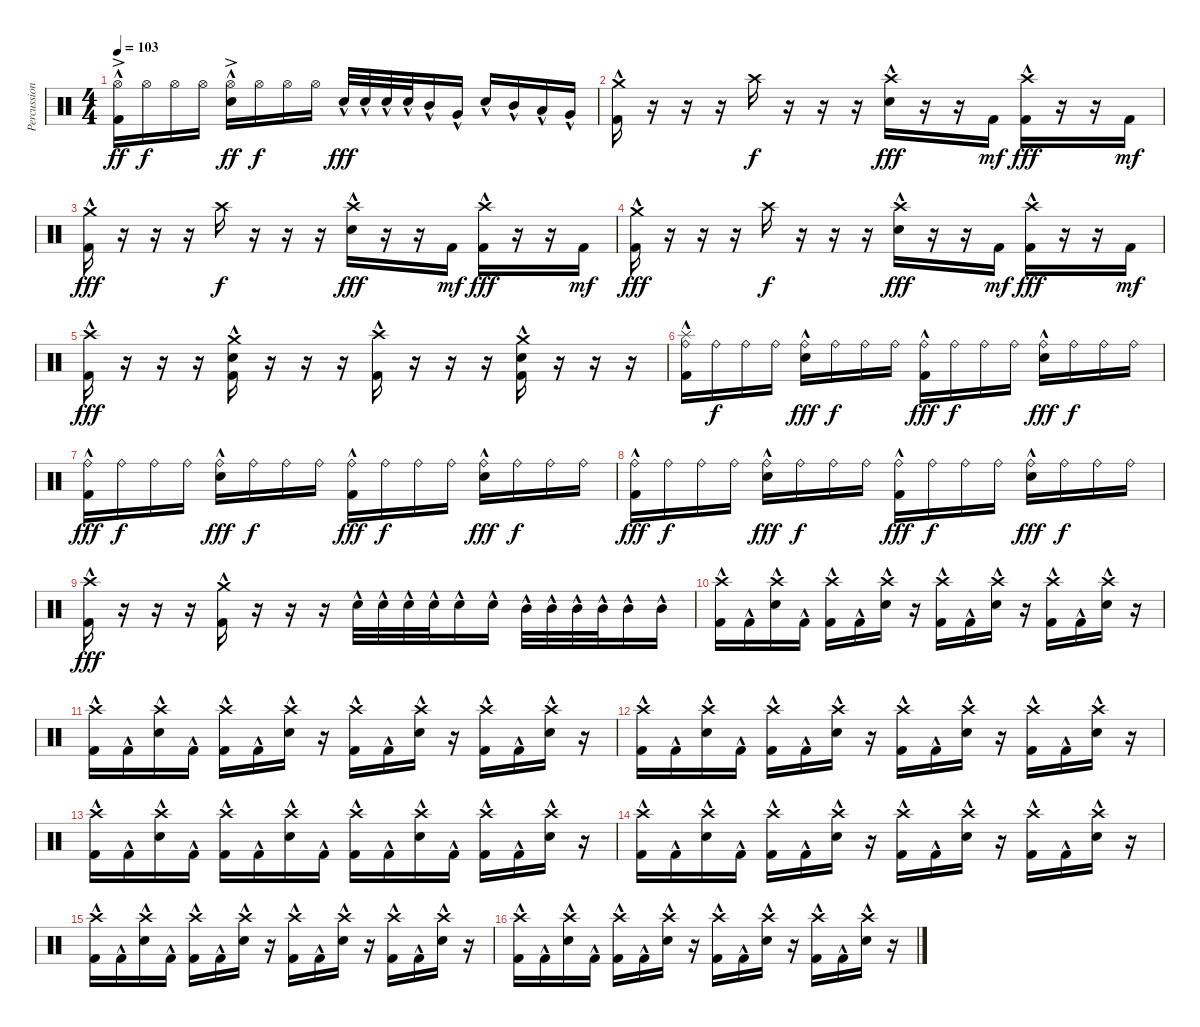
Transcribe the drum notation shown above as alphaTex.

\track ("Percussion" "Percussion") {instrument percussion}
\staff {score}
\articulation defaults
\ts (4 4)
\tempo 103
\clef neutral
\ks c
("Kick (hit) 2"{hac} "Hi-Hat (open)"{ac}).16{dy ff} "Hi-Hat (open)".16{dy f} "Hi-Hat (open)".16 "Hi-Hat (open)".16 ("Electric Snare (hit)"{hac} "Hi-Hat (open)"{ac}).16{dy ff} "Hi-Hat (open)".16{dy f} "Hi-Hat (open)".16 "Hi-Hat (open)".16 "Electric Snare (hit)"{hac}.32{dy fff} "Electric Snare (hit)"{hac}.32 "Electric Snare (hit)"{hac}.32 "Electric Snare (hit)"{hac}.32 "Mid Tom (hit)"{hac}.16 "Very Low Tom (hit)"{hac}.16 "Electric Snare (hit)"{hac}.16 "Mid Tom (hit)"{hac}.16 "Low Tom (hit)"{hac}.16 "Very Low Tom (hit)"{hac}.16 |
("Kick (hit) 2"{hac} "Crash medium (hit)").16 r.16 r.16 r.16 "Crash high (hit)".16{dy f} r.16 r.16 r.16 ("Electric Snare (hit)"{hac} "Crash high (hit)").16{dy fff} r.16 r.16 "Kick (hit) 2".16{dy mf} ("Kick (hit) 2"{hac} "Crash high (hit)").16{dy fff} r.16 r.16 "Kick (hit) 2".16{dy mf} |
("Kick (hit) 2"{hac} "Crash medium (hit)").16{dy fff} r.16 r.16 r.16 "Crash high (hit)".16{dy f} r.16 r.16 r.16 ("Electric Snare (hit)"{hac} "Crash high (hit)").16{dy fff} r.16 r.16 "Kick (hit) 2".16{dy mf} ("Kick (hit) 2"{hac} "Crash high (hit)").16{dy fff} r.16 r.16 "Kick (hit) 2".16{dy mf} |
("Kick (hit) 2"{hac} "Crash medium (hit)").16{dy fff} r.16 r.16 r.16 "Crash high (hit)".16{dy f} r.16 r.16 r.16 ("Electric Snare (hit)"{hac} "Crash high (hit)").16{dy fff} r.16 r.16 "Kick (hit) 2".16{dy mf} ("Kick (hit) 2"{hac} "Crash high (hit)").16{dy fff} r.16 r.16 "Kick (hit) 2".16{dy mf} |
("Kick (hit) 2"{hac} "Crash high (hit)").16{dy fff} r.16 r.16 r.16 ("Kick (hit) 2"{hac} "Electric Snare (hit)"{hac} "Crash medium (hit)").16 r.16 r.16 r.16 ("Kick (hit) 2"{hac} "Crash high (hit)").16 r.16 r.16 r.16 ("Kick (hit) 2"{hac} "Electric Snare (hit)"{hac} "Crash medium (hit)").16 r.16 r.16 r.16 |
("Kick (hit) 2"{hac} "Splash (hit)" "Ride (bell)"{hac}).16 "Ride (bell)".16{dy f} "Ride (bell)".16 "Ride (bell)".16 ("Electric Snare (hit)"{hac} "Ride (bell)"{hac}).16{dy fff} "Ride (bell)".16{dy f} "Ride (bell)".16 "Ride (bell)".16 ("Kick (hit) 2"{hac} "Ride (bell)"{hac}).16{dy fff} "Ride (bell)".16{dy f} "Ride (bell)".16 "Ride (bell)".16 ("Electric Snare (hit)"{hac} "Ride (bell)"{hac}).16{dy fff} "Ride (bell)".16{dy f} "Ride (bell)".16 "Ride (bell)".16 |
("Kick (hit) 2"{hac} "Ride (bell)"{hac}).16{dy fff} "Ride (bell)".16{dy f} "Ride (bell)".16 "Ride (bell)".16 ("Electric Snare (hit)"{hac} "Ride (bell)"{hac}).16{dy fff} "Ride (bell)".16{dy f} "Ride (bell)".16 "Ride (bell)".16 ("Kick (hit) 2"{hac} "Ride (bell)"{hac}).16{dy fff} "Ride (bell)".16{dy f} "Ride (bell)".16 "Ride (bell)".16 ("Electric Snare (hit)"{hac} "Ride (bell)"{hac}).16{dy fff} "Ride (bell)".16{dy f} "Ride (bell)".16 "Ride (bell)".16 |
("Kick (hit) 2"{hac} "Ride (bell)"{hac}).16{dy fff} "Ride (bell)".16{dy f} "Ride (bell)".16 "Ride (bell)".16 ("Electric Snare (hit)"{hac} "Ride (bell)"{hac}).16{dy fff} "Ride (bell)".16{dy f} "Ride (bell)".16 "Ride (bell)".16 ("Kick (hit) 2"{hac} "Ride (bell)"{hac}).16{dy fff} "Ride (bell)".16{dy f} "Ride (bell)".16 "Ride (bell)".16 ("Electric Snare (hit)"{hac} "Ride (bell)"{hac}).16{dy fff} "Ride (bell)".16{dy f} "Ride (bell)".16 "Ride (bell)".16 |
("Kick (hit) 2"{hac} "Crash high (hit)").16{dy fff} r.16 r.16 r.16 ("Kick (hit) 2"{hac} "Crash medium (hit)").16 r.16 r.16 r.16 "Electric Snare (hit)"{hac}.32 "Electric Snare (hit)"{hac}.32 "Electric Snare (hit)"{hac}.32 "Electric Snare (hit)"{hac}.32 "Electric Snare (hit)"{hac}.16 "Electric Snare (hit)"{hac}.16 "Mid Tom (hit)"{hac}.32 "Mid Tom (hit)"{hac}.32 "Mid Tom (hit)"{hac}.32 "Mid Tom (hit)"{hac}.32 "Mid Tom (hit)"{hac}.16 "Mid Tom (hit)"{hac}.16 |
("Kick (hit) 2"{hac} "Crash high (hit)").16 "Kick (hit) 2"{hac}.16 ("Electric Snare (hit)"{hac} "Crash high (hit)").16 "Kick (hit) 2"{hac}.16 ("Kick (hit) 2"{hac} "Crash high (hit)").16 "Kick (hit) 2"{hac}.16 ("Electric Snare (hit)"{hac} "Crash high (hit)").16 r.16 ("Kick (hit) 2"{hac} "Crash high (hit)").16 "Kick (hit) 2"{hac}.16 ("Electric Snare (hit)"{hac} "Crash high (hit)").16 r.16 ("Kick (hit) 2"{hac} "Crash high (hit)").16 "Kick (hit) 2"{hac}.16 ("Electric Snare (hit)"{hac} "Crash high (hit)").16 r.16 |
("Kick (hit) 2"{hac} "Crash high (hit)").16 "Kick (hit) 2"{hac}.16 ("Electric Snare (hit)"{hac} "Crash high (hit)").16 "Kick (hit) 2"{hac}.16 ("Kick (hit) 2"{hac} "Crash high (hit)").16 "Kick (hit) 2"{hac}.16 ("Electric Snare (hit)"{hac} "Crash high (hit)").16 r.16 ("Kick (hit) 2"{hac} "Crash high (hit)").16 "Kick (hit) 2"{hac}.16 ("Electric Snare (hit)"{hac} "Crash high (hit)").16 r.16 ("Kick (hit) 2"{hac} "Crash high (hit)").16 "Kick (hit) 2"{hac}.16 ("Electric Snare (hit)"{hac} "Crash high (hit)").16 r.16 |
("Kick (hit) 2"{hac} "Crash high (hit)").16 "Kick (hit) 2"{hac}.16 ("Electric Snare (hit)"{hac} "Crash high (hit)").16 "Kick (hit) 2"{hac}.16 ("Kick (hit) 2"{hac} "Crash high (hit)").16 "Kick (hit) 2"{hac}.16 ("Electric Snare (hit)"{hac} "Crash high (hit)").16 r.16 ("Kick (hit) 2"{hac} "Crash high (hit)").16 "Kick (hit) 2"{hac}.16 ("Electric Snare (hit)"{hac} "Crash high (hit)").16 r.16 ("Kick (hit) 2"{hac} "Crash high (hit)").16 "Kick (hit) 2"{hac}.16 ("Electric Snare (hit)"{hac} "Crash high (hit)").16 r.16 |
("Kick (hit) 2"{hac} "Crash high (hit)").16 "Kick (hit) 2"{hac}.16 ("Electric Snare (hit)"{hac} "Crash high (hit)").16 "Kick (hit) 2"{hac}.16 ("Kick (hit) 2"{hac} "Crash high (hit)").16 "Kick (hit) 2"{hac}.16 ("Electric Snare (hit)"{hac} "Crash high (hit)").16 "Kick (hit) 2"{hac}.16 ("Kick (hit) 2"{hac} "Crash high (hit)").16 "Kick (hit) 2"{hac}.16 ("Electric Snare (hit)"{hac} "Crash high (hit)").16 "Kick (hit) 2"{hac}.16 ("Kick (hit) 2"{hac} "Crash high (hit)").16 "Kick (hit) 2"{hac}.16 ("Electric Snare (hit)"{hac} "Crash high (hit)").16 r.16 |
("Kick (hit) 2"{hac} "Crash high (hit)").16 "Kick (hit) 2"{hac}.16 ("Electric Snare (hit)"{hac} "Crash high (hit)").16 "Kick (hit) 2"{hac}.16 ("Kick (hit) 2"{hac} "Crash high (hit)").16 "Kick (hit) 2"{hac}.16 ("Electric Snare (hit)"{hac} "Crash high (hit)").16 r.16 ("Kick (hit) 2"{hac} "Crash high (hit)").16 "Kick (hit) 2"{hac}.16 ("Electric Snare (hit)"{hac} "Crash high (hit)").16 r.16 ("Kick (hit) 2"{hac} "Crash high (hit)").16 "Kick (hit) 2"{hac}.16 ("Electric Snare (hit)"{hac} "Crash high (hit)").16 r.16 |
("Kick (hit) 2"{hac} "Crash high (hit)").16 "Kick (hit) 2"{hac}.16 ("Electric Snare (hit)"{hac} "Crash high (hit)").16 "Kick (hit) 2"{hac}.16 ("Kick (hit) 2"{hac} "Crash high (hit)").16 "Kick (hit) 2"{hac}.16 ("Electric Snare (hit)"{hac} "Crash high (hit)").16 r.16 ("Kick (hit) 2"{hac} "Crash high (hit)").16 "Kick (hit) 2"{hac}.16 ("Electric Snare (hit)"{hac} "Crash high (hit)").16 r.16 ("Kick (hit) 2"{hac} "Crash high (hit)").16 "Kick (hit) 2"{hac}.16 ("Electric Snare (hit)"{hac} "Crash high (hit)").16 r.16 |
("Kick (hit) 2"{hac} "Crash high (hit)").16 "Kick (hit) 2"{hac}.16 ("Electric Snare (hit)"{hac} "Crash high (hit)").16 "Kick (hit) 2"{hac}.16 ("Kick (hit) 2"{hac} "Crash high (hit)").16 "Kick (hit) 2"{hac}.16 ("Electric Snare (hit)"{hac} "Crash high (hit)").16 r.16 ("Kick (hit) 2"{hac} "Crash high (hit)").16 "Kick (hit) 2"{hac}.16 ("Electric Snare (hit)"{hac} "Crash high (hit)").16 r.16 ("Kick (hit) 2"{hac} "Crash high (hit)").16 "Kick (hit) 2"{hac}.16 ("Electric Snare (hit)"{hac} "Crash high (hit)").16 r.16
